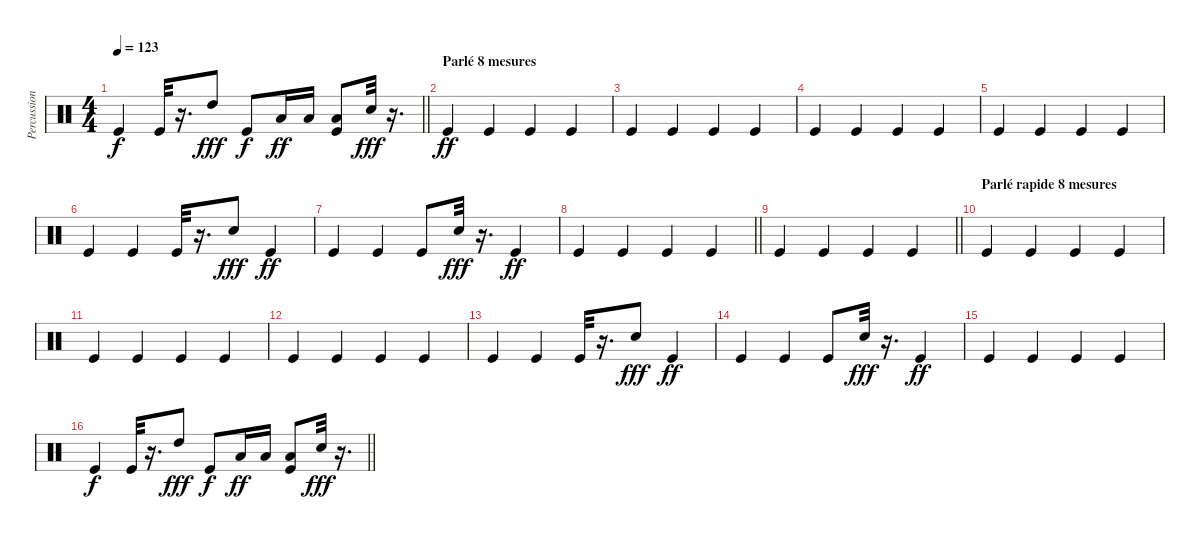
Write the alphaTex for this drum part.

\track ("Percussions" "Percussion") {instrument percussion}
\staff {score}
\articulation defaults
\ts (4 4)
\tempo 123
\clef neutral
\barLineRight lightlight
\ks c "Kick (hit)".4{dy f} "Kick (hit)".32
r.16{d} "High Tom (hit)".8{dy fff} "Kick (hit)".8{dy f} "Low Tom (hit)".16{dy ff} "Low Tom (hit)".16 ("Kick (hit)" "Low Tom (hit)").8 "Hand Clap (hit)".32{dy fff} r.16{d} |
\section ("" "Parlé 8 mesures")
"Kick (hit)".4{dy ff} "Kick (hit)".4 "Kick (hit)".4 "Kick (hit)".4 |
"Kick (hit)".4 "Kick (hit)".4 "Kick (hit)".4 "Kick (hit)".4 |
"Kick (hit)".4 "Kick (hit)".4 "Kick (hit)".4 "Kick (hit)".4 |
"Kick (hit)".4 "Kick (hit)".4 "Kick (hit)".4 "Kick (hit)".4 |
"Kick (hit)".4 "Kick (hit)".4 "Kick (hit)".32 r.16{d} "Hand Clap (hit)".8{dy fff} "Kick (hit)".4{dy ff} |
"Kick (hit)".4 "Kick (hit)".4 "Kick (hit)".8 "Hand Clap (hit)".32{dy fff} r.16{d} "Kick (hit)".4{dy ff} |
\barLineRight lightlight "Kick (hit)".4 "Kick (hit)".4 "Kick (hit)".4 "Kick (hit)".4
|
\section ("" "")
\barLineRight lightlight "Kick (hit)".4 "Kick (hit)".4 "Kick (hit)".4 "Kick (hit)".4
|
\section ("" "Parlé rapide 8 mesures")
"Kick (hit)".4 "Kick (hit)".4 "Kick (hit)".4 "Kick (hit)".4 |
"Kick (hit)".4 "Kick (hit)".4 "Kick (hit)".4 "Kick (hit)".4 |
"Kick (hit)".4 "Kick (hit)".4 "Kick (hit)".4 "Kick (hit)".4 |
"Kick (hit)".4 "Kick (hit)".4 "Kick (hit)".32 r.16{d} "Hand Clap (hit)".8{dy fff} "Kick (hit)".4{dy ff} |
"Kick (hit)".4 "Kick (hit)".4 "Kick (hit)".8 "Hand Clap (hit)".32{dy fff} r.16{d} "Kick (hit)".4{dy ff} |
"Kick (hit)".4 "Kick (hit)".4 "Kick (hit)".4 "Kick (hit)".4 |
\barLineRight lightlight "Kick (hit)".4{dy f} "Kick (hit)".32
r.16{d} "High Tom (hit)".8{dy fff} "Kick (hit)".8{dy f} "Low Tom (hit)".16{dy ff} "Low Tom (hit)".16 ("Kick (hit)" "Low Tom (hit)").8 "Hand Clap (hit)".32{dy fff} r.16{d}
